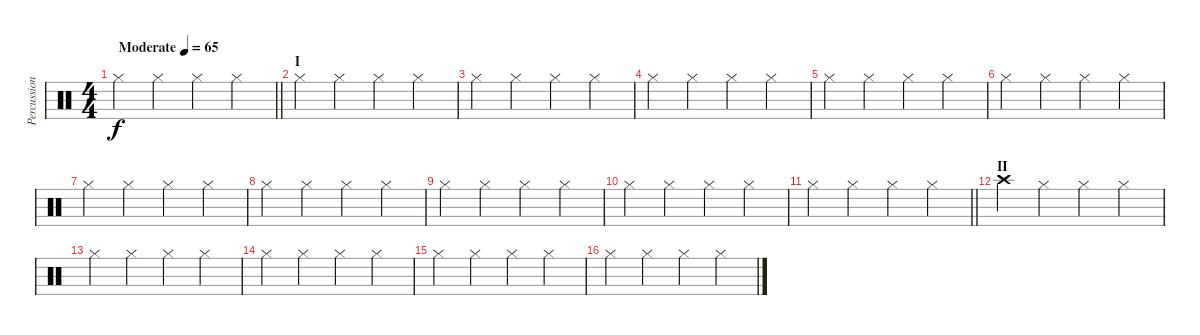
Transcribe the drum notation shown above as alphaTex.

\track ("Percussion" "Percussion") {instrument percussion}
\staff {score}
\articulation defaults
\ts (4 4)
\tempo (65 "Moderate")
\clef neutral
\barLineRight lightlight
\ks c "Hi-Hat (closed)".4{dy f} "Hi-Hat (closed)".4 "Hi-Hat (closed)".4 "Hi-Hat (closed)".4
|
\section ("" "I")
"Hi-Hat (closed)".4 "Hi-Hat (closed)".4 "Hi-Hat (closed)".4 "Hi-Hat (closed)".4 |
"Hi-Hat (closed)".4 "Hi-Hat (closed)".4 "Hi-Hat (closed)".4 "Hi-Hat (closed)".4 |
"Hi-Hat (closed)".4 "Hi-Hat (closed)".4 "Hi-Hat (closed)".4 "Hi-Hat (closed)".4 |
"Hi-Hat (closed)".4 "Hi-Hat (closed)".4 "Hi-Hat (closed)".4 "Hi-Hat (closed)".4 |
"Hi-Hat (closed)".4 "Hi-Hat (closed)".4 "Hi-Hat (closed)".4 "Hi-Hat (closed)".4 |
"Hi-Hat (closed)".4 "Hi-Hat (closed)".4 "Hi-Hat (closed)".4 "Hi-Hat (closed)".4 |
"Hi-Hat (closed)".4 "Hi-Hat (closed)".4 "Hi-Hat (closed)".4 "Hi-Hat (closed)".4 |
"Hi-Hat (closed)".4 "Hi-Hat (closed)".4 "Hi-Hat (closed)".4 "Hi-Hat (closed)".4 |
"Hi-Hat (closed)".4 "Hi-Hat (closed)".4 "Hi-Hat (closed)".4 "Hi-Hat (closed)".4 |
\barLineRight lightlight "Hi-Hat (closed)".4 "Hi-Hat (closed)".4 "Hi-Hat (closed)".4 "Hi-Hat (closed)".4
|
\section ("" "II")
"Crash high (hit)".4 "Hi-Hat (closed)".4 "Hi-Hat (closed)".4 "Hi-Hat (closed)".4 |
"Hi-Hat (closed)".4 "Hi-Hat (closed)".4 "Hi-Hat (closed)".4 "Hi-Hat (closed)".4 |
"Hi-Hat (closed)".4 "Hi-Hat (closed)".4 "Hi-Hat (closed)".4 "Hi-Hat (closed)".4 |
"Hi-Hat (closed)".4 "Hi-Hat (closed)".4 "Hi-Hat (closed)".4 "Hi-Hat (closed)".4 |
"Hi-Hat (closed)".4 "Hi-Hat (closed)".4 "Hi-Hat (closed)".4 "Hi-Hat (closed)".4
